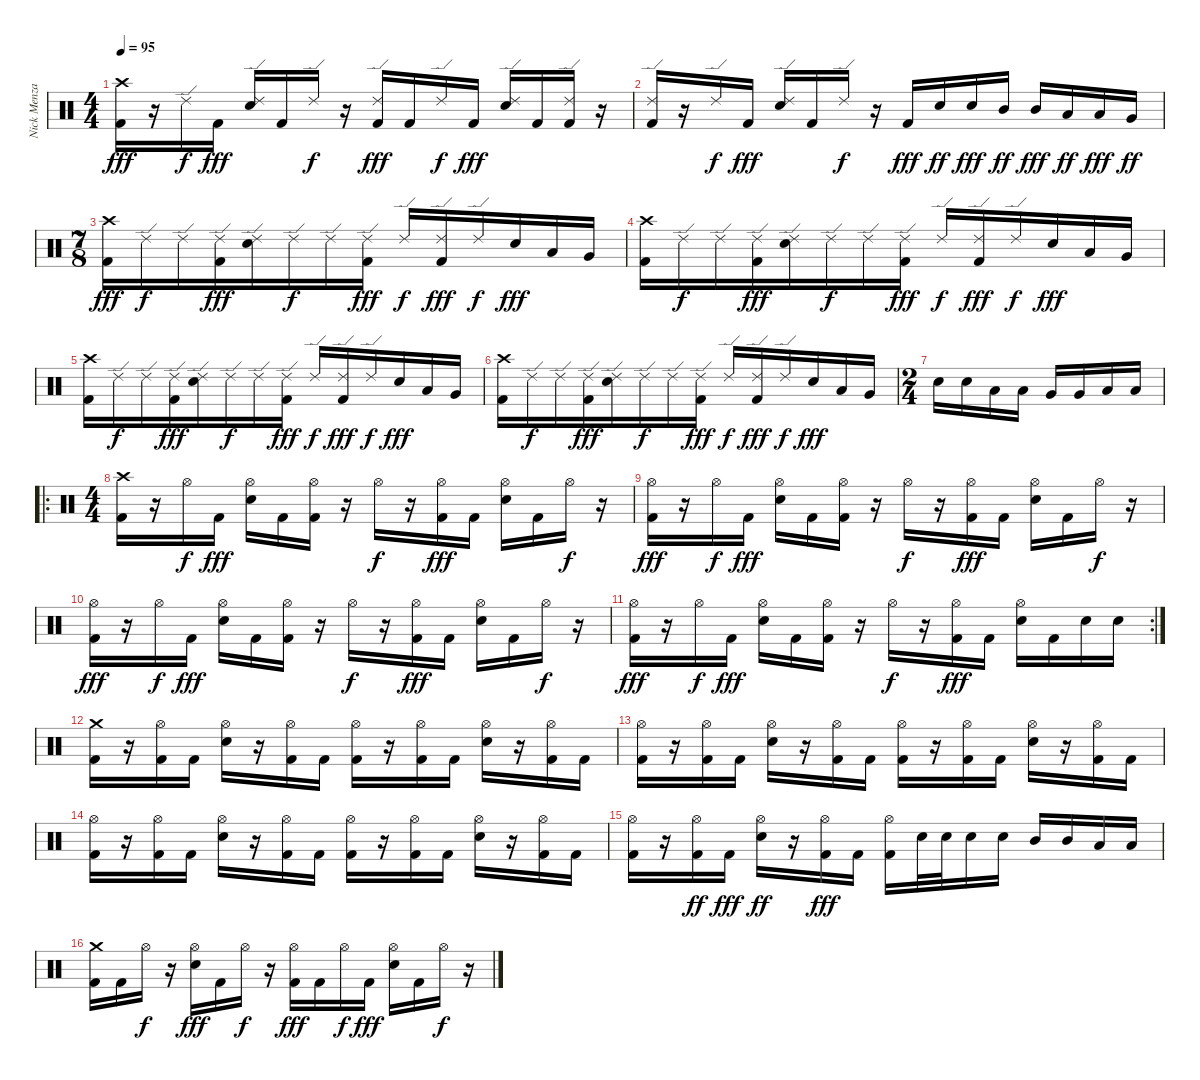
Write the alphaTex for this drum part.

\track ("Nick Menza" "Nick Menza") {instrument percussion}
\staff {score}
\articulation defaults
\ts (4 4)
\tempo 95
\clef neutral
\ks c
("Kick (hit) 2" "Crash high (hit)").16{dy fff} r.16 "Ride (edge) 2".16{dy f} "Kick (hit) 2".16{dy fff} ("Electric Snare (hit)" "Ride (edge) 2").16 "Kick (hit) 2".16 "Ride (edge) 2".16{dy f} r.16 ("Kick (hit) 2" "Ride (edge) 2").16{dy fff} "Kick (hit) 2".16 "Ride (edge) 2".16{dy f} "Kick (hit) 2".16{dy fff} ("Electric Snare (hit)" "Ride (edge) 2").16 "Kick (hit) 2".16 ("Kick (hit) 2" "Ride (edge) 2").16 r.16 |
("Kick (hit) 2" "Ride (edge) 2").16 r.16 "Ride (edge) 2".16{dy f} "Kick (hit) 2".16{dy fff} ("Electric Snare (hit)" "Ride (edge) 2").16 "Kick (hit) 2".16 "Ride (edge) 2".16{dy f} r.16 "Kick (hit) 2".16{dy fff} "Electric Snare (hit)".16{dy ff} "Electric Snare (hit)".16{dy fff} "Mid Tom (hit)".16{dy ff} "Mid Tom (hit)".16{dy fff} "Low Tom (hit)".16{dy ff} "Low Tom (hit)".16{dy fff} "Very Low Tom (hit)".16{dy ff} |
\ts (7 8)
("Kick (hit) 2" "Crash high (hit)").16{dy fff} "Ride (edge) 2".16{dy f} "Ride (edge) 2".16 ("Kick (hit) 2" "Ride (edge) 2").16{dy fff} ("Electric Snare (hit)" "Ride (edge) 2").16 "Ride (edge) 2".16{dy f} "Ride (edge) 2".16 ("Kick (hit) 2" "Ride (edge) 2").16{dy fff} "Ride (edge) 2".16{dy f} ("Kick (hit) 2" "Ride (edge) 2").16{dy fff} "Ride (edge) 2".16{dy f} "Electric Snare (hit)".16{dy fff} "Low Tom (hit)".16 "Very Low Tom (hit)".16 |
("Kick (hit) 2" "Crash high (hit)").16 "Ride (edge) 2".16{dy f} "Ride (edge) 2".16 ("Kick (hit) 2" "Ride (edge) 2").16{dy fff} ("Electric Snare (hit)" "Ride (edge) 2").16 "Ride (edge) 2".16{dy f} "Ride (edge) 2".16 ("Kick (hit) 2" "Ride (edge) 2").16{dy fff} "Ride (edge) 2".16{dy f} ("Kick (hit) 2" "Ride (edge) 2").16{dy fff} "Ride (edge) 2".16{dy f} "Electric Snare (hit)".16{dy fff} "Low Tom (hit)".16 "Very Low Tom (hit)".16 |
("Kick (hit) 2" "Crash high (hit)").16 "Ride (edge) 2".16{dy f} "Ride (edge) 2".16 ("Kick (hit) 2" "Ride (edge) 2").16{dy fff} ("Electric Snare (hit)" "Ride (edge) 2").16 "Ride (edge) 2".16{dy f} "Ride (edge) 2".16 ("Kick (hit) 2" "Ride (edge) 2").16{dy fff} "Ride (edge) 2".16{dy f} ("Kick (hit) 2" "Ride (edge) 2").16{dy fff} "Ride (edge) 2".16{dy f} "Electric Snare (hit)".16{dy fff} "Low Tom (hit)".16 "Very Low Tom (hit)".16 |
("Kick (hit) 2" "Crash high (hit)").16 "Ride (edge) 2".16{dy f} "Ride (edge) 2".16 ("Kick (hit) 2" "Ride (edge) 2").16{dy fff} ("Electric Snare (hit)" "Ride (edge) 2").16 "Ride (edge) 2".16{dy f} "Ride (edge) 2".16 ("Kick (hit) 2" "Ride (edge) 2").16{dy fff} "Ride (edge) 2".16{dy f} ("Kick (hit) 2" "Ride (edge) 2").16{dy fff} "Ride (edge) 2".16{dy f} "Electric Snare (hit)".16{dy fff} "Low Tom (hit)".16 "Very Low Tom (hit)".16 |
\ts (2 4)
"Electric Snare (hit)".16 "Electric Snare (hit)".16 "Low Tom (hit)".16 "Low Tom (hit)".16 "Very Low Tom (hit)".16 "Very Low Tom (hit)".16 "Low Floor Tom (hit)".16 "Low Floor Tom (hit)".16 |
\ro
\ts (4 4)
("Kick (hit) 2" "Crash high (hit)").16 r.16 "Hi-Hat (open)".16{dy f} "Kick (hit) 2".16{dy fff} ("Electric Snare (hit)" "Hi-Hat (open)").16 "Kick (hit) 2".16 ("Kick (hit) 2" "Hi-Hat (open)").16 r.16 "Hi-Hat (open)".16{dy f} r.16 ("Kick (hit) 2" "Hi-Hat (open)").16{dy fff} "Kick (hit) 2".16 ("Electric Snare (hit)" "Hi-Hat (open)").16 "Kick (hit) 2".16 "Hi-Hat (open)".16{dy f} r.16 |
("Kick (hit) 2" "Hi-Hat (open)").16{dy fff} r.16 "Hi-Hat (open)".16{dy f} "Kick (hit) 2".16{dy fff} ("Electric Snare (hit)" "Hi-Hat (open)").16 "Kick (hit) 2".16 ("Kick (hit) 2" "Hi-Hat (open)").16 r.16 "Hi-Hat (open)".16{dy f} r.16 ("Kick (hit) 2" "Hi-Hat (open)").16{dy fff} "Kick (hit) 2".16 ("Electric Snare (hit)" "Hi-Hat (open)").16 "Kick (hit) 2".16 "Hi-Hat (open)".16{dy f} r.16 |
("Kick (hit) 2" "Hi-Hat (open)").16{dy fff} r.16 "Hi-Hat (open)".16{dy f} "Kick (hit) 2".16{dy fff} ("Electric Snare (hit)" "Hi-Hat (open)").16 "Kick (hit) 2".16 ("Kick (hit) 2" "Hi-Hat (open)").16 r.16 "Hi-Hat (open)".16{dy f} r.16 ("Kick (hit) 2" "Hi-Hat (open)").16{dy fff} "Kick (hit) 2".16 ("Electric Snare (hit)" "Hi-Hat (open)").16 "Kick (hit) 2".16 "Hi-Hat (open)".16{dy f} r.16 |
\rc 2
("Kick (hit) 2" "Hi-Hat (open)").16{dy fff} r.16 "Hi-Hat (open)".16{dy f} "Kick (hit) 2".16{dy fff} ("Electric Snare (hit)" "Hi-Hat (open)").16 "Kick (hit) 2".16 ("Kick (hit) 2" "Hi-Hat (open)").16 r.16 "Hi-Hat (open)".16{dy f} r.16 ("Kick (hit) 2" "Hi-Hat (open)").16{dy fff} "Kick (hit) 2".16 ("Electric Snare (hit)" "Hi-Hat (open)").16 "Kick (hit) 2".16 "Electric Snare (hit)".16 "Electric Snare (hit)".16 |
("Kick (hit) 2" "Crash medium (hit)").16 r.16 ("Kick (hit) 2" "Hi-Hat (open)").16 "Kick (hit) 2".16 ("Electric Snare (hit)" "Hi-Hat (open)").16 r.16 ("Kick (hit) 2" "Hi-Hat (open)").16 "Kick (hit) 2".16 ("Kick (hit) 2" "Hi-Hat (open)").16 r.16 ("Kick (hit) 2" "Hi-Hat (open)").16 "Kick (hit) 2".16 ("Electric Snare (hit)" "Hi-Hat (open)").16 r.16 ("Kick (hit) 2" "Hi-Hat (open)").16 "Kick (hit) 2".16 |
("Kick (hit) 2" "Hi-Hat (open)").16 r.16 ("Kick (hit) 2" "Hi-Hat (open)").16 "Kick (hit) 2".16 ("Electric Snare (hit)" "Hi-Hat (open)").16 r.16 ("Kick (hit) 2" "Hi-Hat (open)").16 "Kick (hit) 2".16 ("Kick (hit) 2" "Hi-Hat (open)").16 r.16 ("Kick (hit) 2" "Hi-Hat (open)").16 "Kick (hit) 2".16 ("Electric Snare (hit)" "Hi-Hat (open)").16 r.16 ("Kick (hit) 2" "Hi-Hat (open)").16 "Kick (hit) 2".16 |
("Kick (hit) 2" "Hi-Hat (open)").16 r.16 ("Kick (hit) 2" "Hi-Hat (open)").16 "Kick (hit) 2".16 ("Electric Snare (hit)" "Hi-Hat (open)").16 r.16 ("Kick (hit) 2" "Hi-Hat (open)").16 "Kick (hit) 2".16 ("Kick (hit) 2" "Hi-Hat (open)").16 r.16 ("Kick (hit) 2" "Hi-Hat (open)").16 "Kick (hit) 2".16 ("Electric Snare (hit)" "Hi-Hat (open)").16 r.16 ("Kick (hit) 2" "Hi-Hat (open)").16 "Kick (hit) 2".16 |
("Kick (hit) 2" "Hi-Hat (open)").16 r.16 ("Kick (hit) 2" "Hi-Hat (open)").16{dy ff} "Kick (hit) 2".16{dy fff} ("Electric Snare (hit)" "Hi-Hat (open)").16{dy ff} r.16 ("Kick (hit) 2" "Hi-Hat (open)").16{dy fff} "Kick (hit) 2".16 ("Kick (hit) 2" "Hi-Hat (open)").16 "Electric Snare (hit)".32 "Electric Snare (hit)".32 "Electric Snare (hit)".16 "Electric Snare (hit)".16 "Mid Tom (hit)".16 "Mid Tom (hit)".16 "Low Tom (hit)".16 "Low Tom (hit)".16 |
("Kick (hit) 2" "Crash medium (hit)").16 "Kick (hit) 2".16 "Hi-Hat (open)".16{dy f} r.16 ("Electric Snare (hit)" "Hi-Hat (open)").16{dy fff} "Kick (hit) 2".16 "Hi-Hat (open)".16{dy f} r.16 ("Kick (hit) 2" "Hi-Hat (open)").16{dy fff} "Kick (hit) 2".16 "Hi-Hat (open)".16{dy f} "Kick (hit) 2".16{dy fff} ("Electric Snare (hit)" "Hi-Hat (open)").16 "Kick (hit) 2".16 "Hi-Hat (open)".16{dy f} r.16
